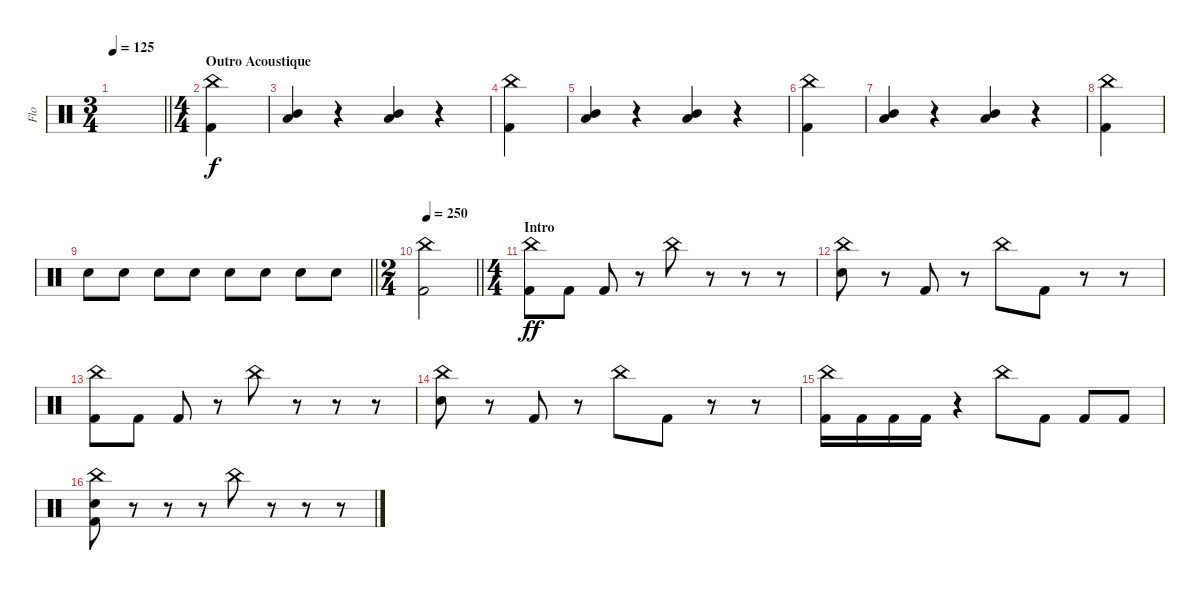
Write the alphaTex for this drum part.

\track ("Flo" "Flo") {instrument percussion}
\staff {score}
\articulation defaults
\ts (3 4)
\tempo 125
\clef neutral
\barLineRight lightlight
\ks c
|
\ts (4 4)
\section ("" "Outro Acoustique")
("China (hit)" "Kick (hit) 2").4 |
("Mid Tom (hit)" "Low Tom (hit)").4 r.4 ("Mid Tom (hit)" "Low Tom (hit)").4 r.4 |
("China (hit)" "Kick (hit) 2").4 |
("Mid Tom (hit)" "Low Tom (hit)").4 r.4 ("Mid Tom (hit)" "Low Tom (hit)").4 r.4 |
("China (hit)" "Kick (hit) 2").4 |
("Mid Tom (hit)" "Low Tom (hit)").4 r.4 ("Mid Tom (hit)" "Low Tom (hit)").4 r.4 |
("China (hit)" "Kick (hit) 2").4 |
\barLineRight lightlight "Electric Snare (hit)".8 "Electric Snare (hit)".8 "Electric Snare (hit)".8 "Electric Snare (hit)".8 "Electric Snare (hit)".8 "Electric Snare (hit)".8 "Electric Snare (hit)".8 "Electric Snare (hit)".8
|
\ts (2 4)
\tempo 250
\barLineRight lightlight
("China (hit)" "Kick (hit) 2").2{dy f} |
\ts (4 4)
\section ("" "Intro")
("China (hit)" "Kick (hit) 2").8{dy ff} "Kick (hit) 2".8 "Kick (hit) 2".8 r.8 "China (hit)".8 r.8 r.8 r.8 |
("China (hit)" "Electric Snare (hit)").8 r.8 "Kick (hit) 2".8 r.8 "China (hit)".8 "Kick (hit) 2".8 r.8 r.8 |
("China (hit)" "Kick (hit) 2").8 "Kick (hit) 2".8 "Kick (hit) 2".8 r.8 "China (hit)".8 r.8 r.8 r.8 |
("China (hit)" "Electric Snare (hit)").8 r.8 "Kick (hit) 2".8 r.8 "China (hit)".8 "Kick (hit) 2".8 r.8 r.8 |
("China (hit)" "Kick (hit) 2").16 "Kick (hit) 2".16 "Kick (hit) 2".16 "Kick (hit) 2".16 r.4 "China (hit)".8 "Kick (hit) 2".8 "Kick (hit) 2".8 "Kick (hit) 2".8 |
("China (hit)" "Electric Snare (hit)" "Kick (hit) 2").8 r.8 r.8 r.8 "China (hit)".8 r.8 r.8 r.8
